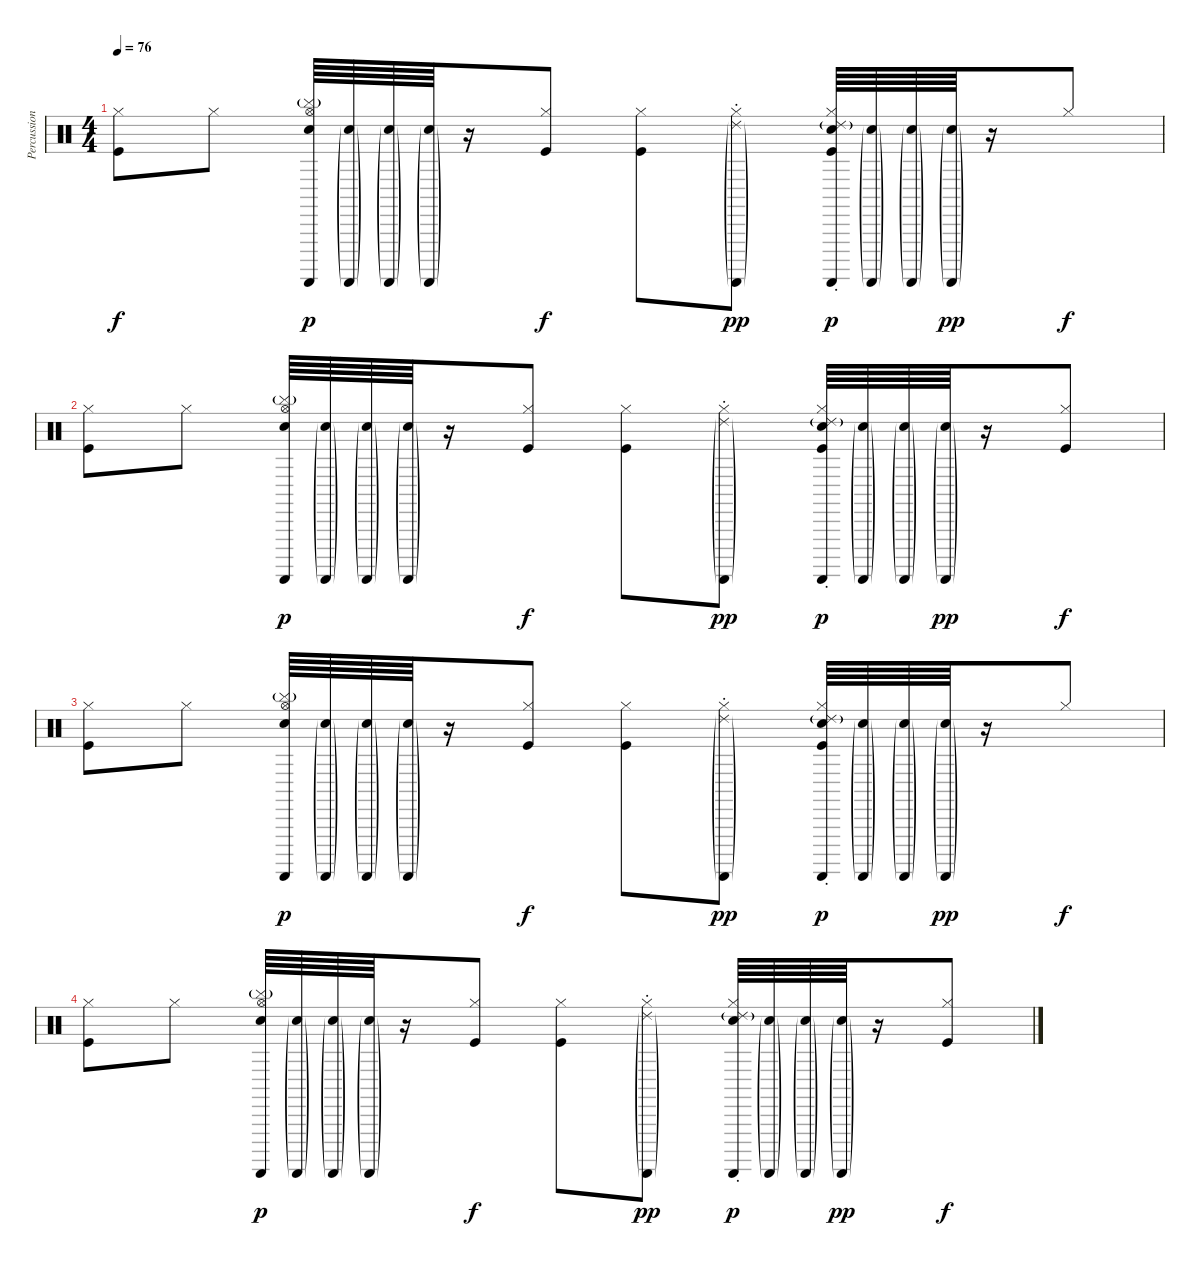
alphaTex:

\track ("Percussion" "Percussion") {instrument percussion}
\staff {score}
\articulation defaults
\ts (4 4)
\tempo 76
\clef neutral
\ks c
("Hi-Hat (closed)" "Kick (hit)").8{dy f} "Hi-Hat (closed)".8 ("Hi-Hat (open)" "Cymbal (hit)"{g} "Snare (hit) 2" "Guiro (scrap-return)").64{dy p} ("Snare (hit) 2"{g} "Guiro (scrap-return)"{g}).64 ("Snare (hit) 2"{g} "Guiro (scrap-return)"{g}).64 ("Snare (hit) 2"{g} "Guiro (scrap-return)"{g}).64 r.16 ("Hi-Hat (closed)" "Kick (hit)").8{dy f} ("Hi-Hat (closed)" "Kick (hit)").8 ("Hi-Hat (closed)" "Ride (choke) 2"{g} "Guiro (scrap-return)"{g}).8{dy pp} ("Hi-Hat (closed)" "Ride (choke) 2"{g} "Snare (hit) 2" "Guiro (scrap-return)" "Kick (hit)").64{dy p} ("Snare (hit) 2"{g} "Guiro (scrap-return)"{g}).64 ("Snare (hit) 2"{g} "Guiro (scrap-return)"{g}).64 ("Snare (hit) 2"{g} "Guiro (scrap-return)"{g}).64{dy pp} r.16 "Hi-Hat (closed)".8{dy f} |
("Hi-Hat (closed)" "Kick (hit)").8 "Hi-Hat (closed)".8 ("Hi-Hat (open)" "Cymbal (hit)"{g} "Snare (hit) 2" "Guiro (scrap-return)").64{dy p} ("Snare (hit) 2"{g} "Guiro (scrap-return)"{g}).64 ("Snare (hit) 2"{g} "Guiro (scrap-return)"{g}).64 ("Snare (hit) 2"{g} "Guiro (scrap-return)"{g}).64 r.16 ("Hi-Hat (closed)" "Kick (hit)").8{dy f} ("Hi-Hat (closed)" "Kick (hit)").8 ("Hi-Hat (closed)" "Ride (choke) 2"{g} "Guiro (scrap-return)"{g}).8{dy pp} ("Hi-Hat (closed)" "Ride (choke) 2"{g} "Snare (hit) 2" "Guiro (scrap-return)" "Kick (hit)").64{dy p} ("Snare (hit) 2"{g} "Guiro (scrap-return)"{g}).64 ("Snare (hit) 2"{g} "Guiro (scrap-return)"{g}).64 ("Snare (hit) 2"{g} "Guiro (scrap-return)"{g}).64{dy pp} r.16 ("Hi-Hat (closed)" "Kick (hit)").8{dy f} |
("Hi-Hat (closed)" "Kick (hit)").8 "Hi-Hat (closed)".8 ("Hi-Hat (open)" "Cymbal (hit)"{g} "Snare (hit) 2" "Guiro (scrap-return)").64{dy p} ("Snare (hit) 2"{g} "Guiro (scrap-return)"{g}).64 ("Snare (hit) 2"{g} "Guiro (scrap-return)"{g}).64 ("Snare (hit) 2"{g} "Guiro (scrap-return)"{g}).64 r.16 ("Hi-Hat (closed)" "Kick (hit)").8{dy f} ("Hi-Hat (closed)" "Kick (hit)").8 ("Hi-Hat (closed)" "Ride (choke) 2"{g} "Guiro (scrap-return)"{g}).8{dy pp} ("Hi-Hat (closed)" "Ride (choke) 2"{g} "Snare (hit) 2" "Guiro (scrap-return)" "Kick (hit)").64{dy p} ("Snare (hit) 2"{g} "Guiro (scrap-return)"{g}).64 ("Snare (hit) 2"{g} "Guiro (scrap-return)"{g}).64 ("Snare (hit) 2"{g} "Guiro (scrap-return)"{g}).64{dy pp} r.16 "Hi-Hat (closed)".8{dy f} |
("Hi-Hat (closed)" "Kick (hit)").8 "Hi-Hat (closed)".8 ("Hi-Hat (open)" "Cymbal (hit)"{g} "Snare (hit) 2" "Guiro (scrap-return)").64{dy p} ("Snare (hit) 2"{g} "Guiro (scrap-return)"{g}).64 ("Snare (hit) 2"{g} "Guiro (scrap-return)"{g}).64 ("Snare (hit) 2"{g} "Guiro (scrap-return)"{g}).64 r.16 ("Hi-Hat (closed)" "Kick (hit)").8{dy f} ("Hi-Hat (closed)" "Kick (hit)").8 ("Hi-Hat (closed)" "Ride (choke) 2"{g} "Guiro (scrap-return)"{g}).8{dy pp} ("Hi-Hat (closed)" "Ride (choke) 2"{g} "Snare (hit) 2" "Guiro (scrap-return)").64{dy p} ("Snare (hit) 2"{g} "Guiro (scrap-return)"{g}).64 ("Snare (hit) 2"{g} "Guiro (scrap-return)"{g}).64 ("Snare (hit) 2"{g} "Guiro (scrap-return)"{g}).64{dy pp} r.16 ("Hi-Hat (closed)" "Kick (hit)").8{dy f}
